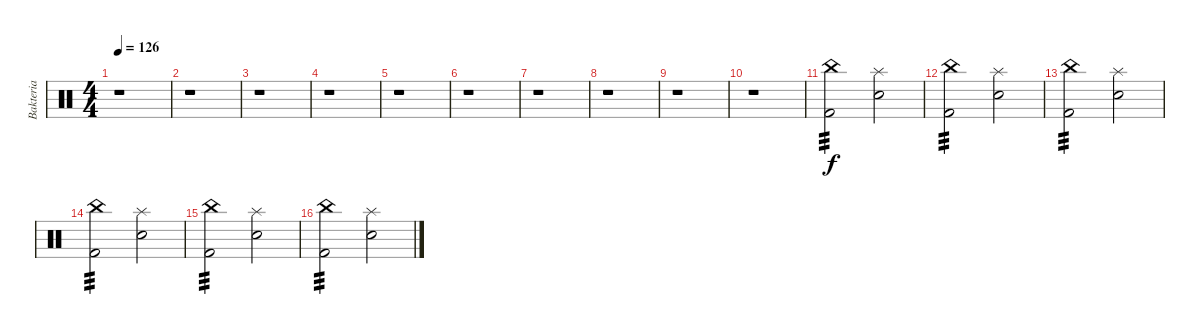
\track ("Bakteria" "Bakteria") {instrument percussion}
\staff {score}
\articulation defaults
\ts (4 4)
\tempo 126
\clef neutral
\ks c
r.1{dy f} |
r.1 |
r.1 |
r.1 |
r.1 |
r.1 |
r.1 |
r.1 |
r.1 |
r.1 |
("Kick (hit) 2" "China (hit)").2{tp 3 volume 0} ("Splash (hit)" "Snare (hit) 2").2{volume 13} |
("Kick (hit) 2" "China (hit)").2{tp 3 volume 0} ("Splash (hit)" "Snare (hit) 2").2{volume 13} |
("Kick (hit) 2" "China (hit)").2{tp 3 volume 0} ("Splash (hit)" "Snare (hit) 2").2{volume 13} |
("Kick (hit) 2" "China (hit)").2{tp 3 volume 0} ("Splash (hit)" "Snare (hit) 2").2{volume 13} |
("Kick (hit) 2" "China (hit)").2{tp 3 volume 0} ("Splash (hit)" "Snare (hit) 2").2{volume 13} |
("Kick (hit) 2" "China (hit)").2{tp 3 volume 0} ("Splash (hit)" "Snare (hit) 2").2{volume 13}
